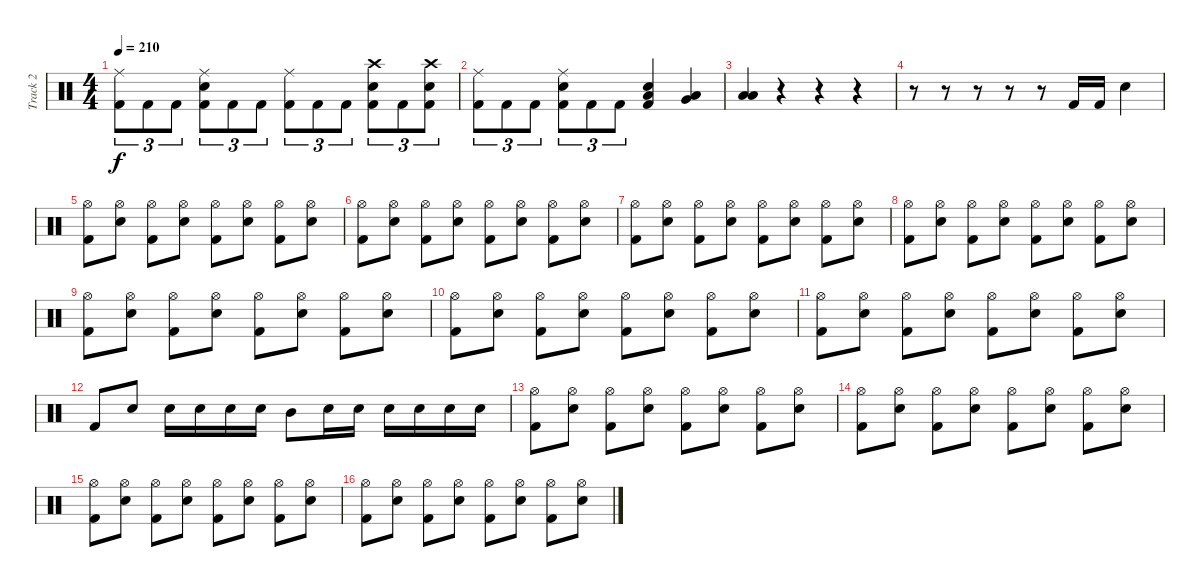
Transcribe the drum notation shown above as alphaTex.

\track ("Track 2" "Track 2") {instrument percussion}
\staff {score}
\articulation defaults
\ts (4 4)
\tempo 210
\clef neutral
\ks c
("Ride (middle)" "Kick (hit) 2").8{tu (3 2) dy f} "Kick (hit) 2".8{tu (3 2)} "Kick (hit) 2".8{tu (3 2)} ("Ride (middle)" "Snare (hit) 2" "Kick (hit) 2").8{tu (3 2)} "Kick (hit) 2".8{tu (3 2)} "Kick (hit) 2".8{tu (3 2)} ("Ride (middle)" "Kick (hit) 2").8{tu (3 2)} "Kick (hit) 2".8{tu (3 2)} "Kick (hit) 2".8{tu (3 2)} ("Crash high (hit)" "Snare (hit) 2" "Kick (hit) 2").8{tu (3 2)} "Kick (hit) 2".8{tu (3 2)} ("Crash high (hit)" "Snare (hit) 2" "Kick (hit) 2").8{tu (3 2)} |
("Ride (middle)" "Kick (hit) 2").8{tu (3 2)} "Kick (hit) 2".8{tu (3 2)} "Kick (hit) 2".8{tu (3 2)} ("Ride (middle)" "Snare (hit) 2" "Kick (hit) 2").8{tu (3 2)} "Kick (hit) 2".8{tu (3 2)} "Kick (hit) 2".8{tu (3 2)} ("Low Tom (hit)" "Snare (hit) 2" "Kick (hit) 2").4 ("Low Tom (hit)" "Very Low Tom (hit)").4 |
("Low Tom (hit)" "Low Floor Tom (hit)").4 r.4 r.4 r.4 |
r.8 r.8 r.8 r.8 r.8 "Kick (hit) 2".16 "Kick (hit) 2".16 "Snare (hit) 2".4 |
("Hi-Hat (open)" "Kick (hit) 2").8 ("Hi-Hat (open)" "Snare (hit) 2").8 ("Hi-Hat (open)" "Kick (hit) 2").8 ("Hi-Hat (open)" "Snare (hit) 2").8 ("Hi-Hat (open)" "Kick (hit) 2").8 ("Hi-Hat (open)" "Snare (hit) 2").8 ("Hi-Hat (open)" "Kick (hit) 2").8 ("Hi-Hat (open)" "Snare (hit) 2").8 |
("Hi-Hat (open)" "Kick (hit) 2").8 ("Hi-Hat (open)" "Snare (hit) 2").8 ("Hi-Hat (open)" "Kick (hit) 2").8 ("Hi-Hat (open)" "Snare (hit) 2").8 ("Hi-Hat (open)" "Kick (hit) 2").8 ("Hi-Hat (open)" "Snare (hit) 2").8 ("Hi-Hat (open)" "Kick (hit) 2").8 ("Hi-Hat (open)" "Snare (hit) 2").8 |
("Hi-Hat (open)" "Kick (hit) 2").8 ("Hi-Hat (open)" "Snare (hit) 2").8 ("Hi-Hat (open)" "Kick (hit) 2").8 ("Hi-Hat (open)" "Snare (hit) 2").8 ("Hi-Hat (open)" "Kick (hit) 2").8 ("Hi-Hat (open)" "Snare (hit) 2").8 ("Hi-Hat (open)" "Kick (hit) 2").8 ("Hi-Hat (open)" "Snare (hit) 2").8 |
("Hi-Hat (open)" "Kick (hit) 2").8 ("Hi-Hat (open)" "Snare (hit) 2").8 ("Hi-Hat (open)" "Kick (hit) 2").8 ("Hi-Hat (open)" "Snare (hit) 2").8 ("Hi-Hat (open)" "Kick (hit) 2").8 ("Hi-Hat (open)" "Snare (hit) 2").8 ("Hi-Hat (open)" "Kick (hit) 2").8 ("Hi-Hat (open)" "Snare (hit) 2").8 |
("Hi-Hat (open)" "Kick (hit) 2").8 ("Hi-Hat (open)" "Snare (hit) 2").8 ("Hi-Hat (open)" "Kick (hit) 2").8 ("Hi-Hat (open)" "Snare (hit) 2").8 ("Hi-Hat (open)" "Kick (hit) 2").8 ("Hi-Hat (open)" "Snare (hit) 2").8 ("Hi-Hat (open)" "Kick (hit) 2").8 ("Hi-Hat (open)" "Snare (hit) 2").8 |
("Hi-Hat (open)" "Kick (hit) 2").8 ("Hi-Hat (open)" "Snare (hit) 2").8 ("Hi-Hat (open)" "Kick (hit) 2").8 ("Hi-Hat (open)" "Snare (hit) 2").8 ("Hi-Hat (open)" "Kick (hit) 2").8 ("Hi-Hat (open)" "Snare (hit) 2").8 ("Hi-Hat (open)" "Kick (hit) 2").8 ("Hi-Hat (open)" "Snare (hit) 2").8 |
("Hi-Hat (open)" "Kick (hit) 2").8 ("Hi-Hat (open)" "Snare (hit) 2").8 ("Hi-Hat (open)" "Kick (hit) 2").8 ("Hi-Hat (open)" "Snare (hit) 2").8 ("Hi-Hat (open)" "Kick (hit) 2").8 ("Hi-Hat (open)" "Snare (hit) 2").8 ("Hi-Hat (open)" "Kick (hit) 2").8 ("Hi-Hat (open)" "Snare (hit) 2").8 |
"Kick (hit) 2".8 "Snare (hit) 2".8 "Snare (hit) 2".16 "Snare (hit) 2".16 "Snare (hit) 2".16 "Snare (hit) 2".16 "Mid Tom (hit)".8 "Snare (hit) 2".16 "Snare (hit) 2".16 "Snare (hit) 2".16 "Snare (hit) 2".16 "Snare (hit) 2".16 "Snare (hit) 2".16 |
("Hi-Hat (open)" "Kick (hit) 2").8 ("Hi-Hat (open)" "Snare (hit) 2").8 ("Hi-Hat (open)" "Kick (hit) 2").8 ("Hi-Hat (open)" "Snare (hit) 2").8 ("Hi-Hat (open)" "Kick (hit) 2").8 ("Hi-Hat (open)" "Snare (hit) 2").8 ("Hi-Hat (open)" "Kick (hit) 2").8 ("Hi-Hat (open)" "Snare (hit) 2").8 |
("Hi-Hat (open)" "Kick (hit) 2").8 ("Hi-Hat (open)" "Snare (hit) 2").8 ("Hi-Hat (open)" "Kick (hit) 2").8 ("Hi-Hat (open)" "Snare (hit) 2").8 ("Hi-Hat (open)" "Kick (hit) 2").8 ("Hi-Hat (open)" "Snare (hit) 2").8 ("Hi-Hat (open)" "Kick (hit) 2").8 ("Hi-Hat (open)" "Snare (hit) 2").8 |
("Hi-Hat (open)" "Kick (hit) 2").8 ("Hi-Hat (open)" "Snare (hit) 2").8 ("Hi-Hat (open)" "Kick (hit) 2").8 ("Hi-Hat (open)" "Snare (hit) 2").8 ("Hi-Hat (open)" "Kick (hit) 2").8 ("Hi-Hat (open)" "Snare (hit) 2").8 ("Hi-Hat (open)" "Kick (hit) 2").8 ("Hi-Hat (open)" "Snare (hit) 2").8 |
("Hi-Hat (open)" "Kick (hit) 2").8 ("Hi-Hat (open)" "Snare (hit) 2").8 ("Hi-Hat (open)" "Kick (hit) 2").8 ("Hi-Hat (open)" "Snare (hit) 2").8 ("Hi-Hat (open)" "Kick (hit) 2").8 ("Hi-Hat (open)" "Snare (hit) 2").8 ("Hi-Hat (open)" "Kick (hit) 2").8 ("Hi-Hat (open)" "Snare (hit) 2").8
